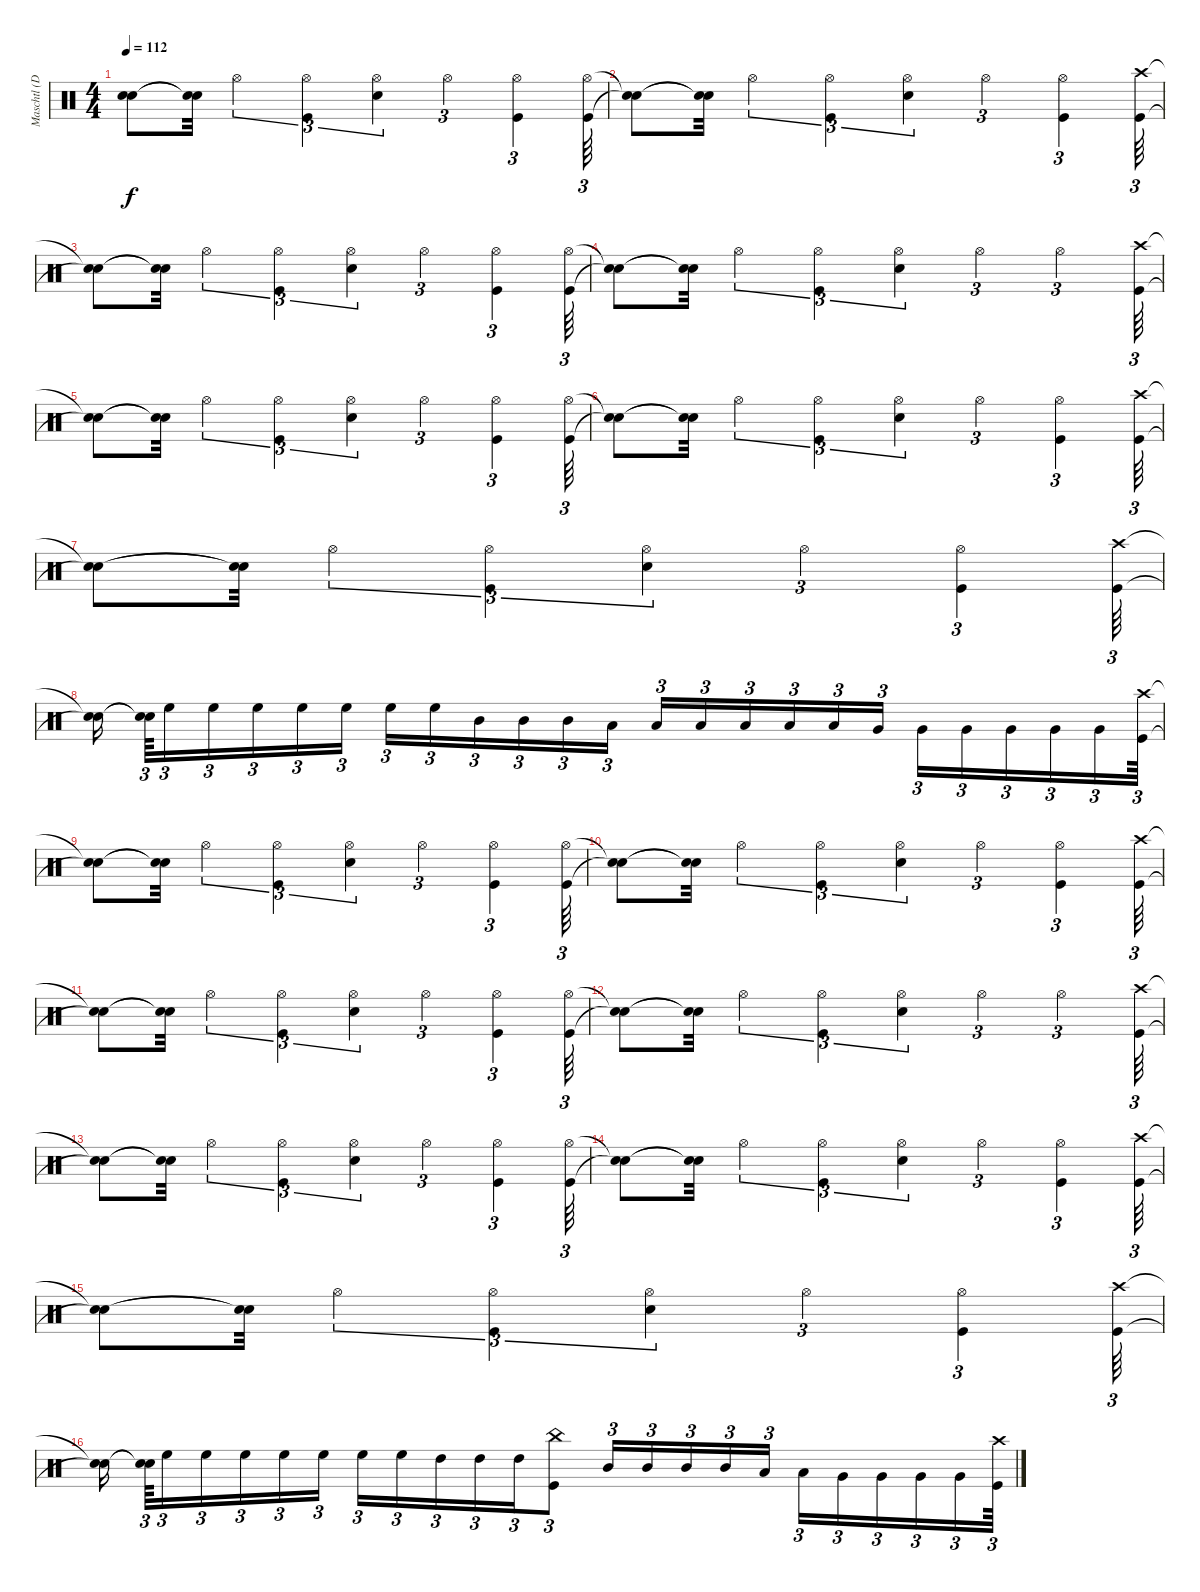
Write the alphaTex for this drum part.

\track ("Maschtl (Drums)" "Maschtl (D") {instrument percussion}
\staff {score}
\articulation defaults
\ts (4 4)
\tempo 112
\clef neutral
\ks c
("Snare (hit)"{t} "Snare (hit)"{t}).8{dy f} ("Snare (hit)"{t} "Snare (hit)"{t}).32 "Hi-Hat (open)".4{tu (3 2)} ("Hi-Hat (open)" "Kick (hit)").4{tu (3 2)} ("Hi-Hat (open)" "Electric Snare (hit)").4{tu (3 2)} "Hi-Hat (open)".4{tu (3 2)} ("Hi-Hat (open)" "Kick (hit)").4{tu (3 2)} ("Hi-Hat (open)" "Kick (hit)").64{tu (3 2)} |
("Snare (hit)"{t} "Snare (hit)"{t}).8 ("Snare (hit)"{t} "Snare (hit)"{t}).32 "Hi-Hat (open)".4{tu (3 2)} ("Hi-Hat (open)" "Kick (hit)").4{tu (3 2)} ("Hi-Hat (open)" "Electric Snare (hit)").4{tu (3 2)} "Hi-Hat (open)".4{tu (3 2)} ("Hi-Hat (open)" "Kick (hit)").4{tu (3 2)} ("Crash high (hit)" "Kick (hit)").64{tu (3 2)} |
("Snare (hit)"{t} "Snare (hit)"{t}).8 ("Snare (hit)"{t} "Snare (hit)"{t}).32 "Hi-Hat (open)".4{tu (3 2)} ("Hi-Hat (open)" "Kick (hit)").4{tu (3 2)} ("Hi-Hat (open)" "Electric Snare (hit)").4{tu (3 2)} "Hi-Hat (open)".4{tu (3 2)} ("Hi-Hat (open)" "Kick (hit)").4{tu (3 2)} ("Hi-Hat (open)" "Kick (hit)").64{tu (3 2)} |
("Snare (hit)"{t} "Snare (hit)"{t}).8 ("Snare (hit)"{t} "Snare (hit)"{t}).32 "Hi-Hat (open)".4{tu (3 2)} ("Hi-Hat (open)" "Kick (hit)").4{tu (3 2)} ("Hi-Hat (open)" "Electric Snare (hit)").4{tu (3 2)} "Hi-Hat (open)".4{tu (3 2)} "Hi-Hat (open)".4{tu (3 2)} ("Crash high (hit)" "Kick (hit)").64{tu (3 2)} |
("Snare (hit)"{t} "Snare (hit)"{t}).8 ("Snare (hit)"{t} "Snare (hit)"{t}).32 "Hi-Hat (open)".4{tu (3 2)} ("Hi-Hat (open)" "Kick (hit)").4{tu (3 2)} ("Hi-Hat (open)" "Electric Snare (hit)").4{tu (3 2)} "Hi-Hat (open)".4{tu (3 2)} ("Hi-Hat (open)" "Kick (hit)").4{tu (3 2)} ("Hi-Hat (open)" "Kick (hit)").64{tu (3 2)} |
("Snare (hit)"{t} "Snare (hit)"{t}).8 ("Snare (hit)"{t} "Snare (hit)"{t}).32 "Hi-Hat (open)".4{tu (3 2)} ("Hi-Hat (open)" "Kick (hit)").4{tu (3 2)} ("Hi-Hat (open)" "Electric Snare (hit)").4{tu (3 2)} "Hi-Hat (open)".4{tu (3 2)} ("Hi-Hat (open)" "Kick (hit)").4{tu (3 2)} ("Crash high (hit)" "Kick (hit)").64{tu (3 2)} |
("Snare (hit)"{t} "Snare (hit)"{t}).8 ("Snare (hit)"{t} "Snare (hit)"{t}).32 "Hi-Hat (open)".4{tu (3 2)} ("Hi-Hat (open)" "Kick (hit)").4{tu (3 2)} ("Hi-Hat (open)" "Electric Snare (hit)").4{tu (3 2)} "Hi-Hat (open)".4{tu (3 2)} ("Hi-Hat (open)" "Kick (hit)").4{tu (3 2)} ("Crash high (hit)" "Kick (hit)").64{tu (3 2)} |
("Snare (hit)"{t} "Snare (hit)"{t}).16 ("Snare (hit)"{t} "Snare (hit)"{t}).64{tu (3 2)} "High Floor Tom (hit)".16{tu (3 2)} "High Floor Tom (hit)".16{tu (3 2)} "High Floor Tom (hit)".16{tu (3 2)} "High Floor Tom (hit)".16{tu (3 2)} "High Floor Tom (hit)".16{tu (3 2)} "High Floor Tom (hit)".16{tu (3 2)} "High Floor Tom (hit)".16{tu (3 2)} "Mid Tom (hit)".16{tu (3 2)} "Mid Tom (hit)".16{tu (3 2)} "Mid Tom (hit)".16{tu (3 2)} "Low Tom (hit)".16{tu (3 2)} "Low Tom (hit)".16{tu (3 2)} "Low Tom (hit)".16{tu (3 2)} "Low Tom (hit)".16{tu (3 2)} "Low Tom (hit)".16{tu (3 2)} "Low Tom (hit)".16{tu (3 2)} "Very Low Tom (hit)".16{tu (3 2)} "Very Low Tom (hit)".16{tu (3 2)} "Very Low Tom (hit)".16{tu (3 2)} "Very Low Tom (hit)".16{tu (3 2)} "Very Low Tom (hit)".16{tu (3 2)} "Very Low Tom (hit)".16{tu (3 2)} ("Crash high (hit)" "Kick (hit)").64{tu (3 2)} |
("Snare (hit)"{t} "Snare (hit)"{t}).8 ("Snare (hit)"{t} "Snare (hit)"{t}).32 "Hi-Hat (open)".4{tu (3 2)} ("Hi-Hat (open)" "Kick (hit)").4{tu (3 2)} ("Hi-Hat (open)" "Electric Snare (hit)").4{tu (3 2)} "Hi-Hat (open)".4{tu (3 2)} ("Hi-Hat (open)" "Kick (hit)").4{tu (3 2)} ("Hi-Hat (open)" "Kick (hit)").64{tu (3 2)} |
("Snare (hit)"{t} "Snare (hit)"{t}).8 ("Snare (hit)"{t} "Snare (hit)"{t}).32 "Hi-Hat (open)".4{tu (3 2)} ("Hi-Hat (open)" "Kick (hit)").4{tu (3 2)} ("Hi-Hat (open)" "Electric Snare (hit)").4{tu (3 2)} "Hi-Hat (open)".4{tu (3 2)} ("Hi-Hat (open)" "Kick (hit)").4{tu (3 2)} ("Crash high (hit)" "Kick (hit)").64{tu (3 2)} |
("Snare (hit)"{t} "Snare (hit)"{t}).8 ("Snare (hit)"{t} "Snare (hit)"{t}).32 "Hi-Hat (open)".4{tu (3 2)} ("Hi-Hat (open)" "Kick (hit)").4{tu (3 2)} ("Hi-Hat (open)" "Electric Snare (hit)").4{tu (3 2)} "Hi-Hat (open)".4{tu (3 2)} ("Hi-Hat (open)" "Kick (hit)").4{tu (3 2)} ("Hi-Hat (open)" "Kick (hit)").64{tu (3 2)} |
("Snare (hit)"{t} "Snare (hit)"{t}).8 ("Snare (hit)"{t} "Snare (hit)"{t}).32 "Hi-Hat (open)".4{tu (3 2)} ("Hi-Hat (open)" "Kick (hit)").4{tu (3 2)} ("Hi-Hat (open)" "Electric Snare (hit)").4{tu (3 2)} "Hi-Hat (open)".4{tu (3 2)} "Hi-Hat (open)".4{tu (3 2)} ("Crash high (hit)" "Kick (hit)").64{tu (3 2)} |
("Snare (hit)"{t} "Snare (hit)"{t}).8 ("Snare (hit)"{t} "Snare (hit)"{t}).32 "Hi-Hat (open)".4{tu (3 2)} ("Hi-Hat (open)" "Kick (hit)").4{tu (3 2)} ("Hi-Hat (open)" "Electric Snare (hit)").4{tu (3 2)} "Hi-Hat (open)".4{tu (3 2)} ("Hi-Hat (open)" "Kick (hit)").4{tu (3 2)} ("Hi-Hat (open)" "Kick (hit)").64{tu (3 2)} |
("Snare (hit)"{t} "Snare (hit)"{t}).8 ("Snare (hit)"{t} "Snare (hit)"{t}).32 "Hi-Hat (open)".4{tu (3 2)} ("Hi-Hat (open)" "Kick (hit)").4{tu (3 2)} ("Hi-Hat (open)" "Electric Snare (hit)").4{tu (3 2)} "Hi-Hat (open)".4{tu (3 2)} ("Hi-Hat (open)" "Kick (hit)").4{tu (3 2)} ("Crash high (hit)" "Kick (hit)").64{tu (3 2)} |
("Snare (hit)"{t} "Snare (hit)"{t}).8 ("Snare (hit)"{t} "Snare (hit)"{t}).32 "Hi-Hat (open)".4{tu (3 2)} ("Hi-Hat (open)" "Kick (hit)").4{tu (3 2)} ("Hi-Hat (open)" "Electric Snare (hit)").4{tu (3 2)} "Hi-Hat (open)".4{tu (3 2)} ("Hi-Hat (open)" "Kick (hit)").4{tu (3 2)} ("Crash high (hit)" "Kick (hit)").64{tu (3 2)} |
("Snare (hit)"{t} "Snare (hit)"{t}).16 ("Snare (hit)"{t} "Snare (hit)"{t}).64{tu (3 2)} "High Floor Tom (hit)".16{tu (3 2)} "High Floor Tom (hit)".16{tu (3 2)} "High Floor Tom (hit)".16{tu (3 2)} "High Floor Tom (hit)".16{tu (3 2)} "High Floor Tom (hit)".16{tu (3 2)} "High Floor Tom (hit)".16{tu (3 2)} "High Floor Tom (hit)".16{tu (3 2)} "High Tom (hit)".16{tu (3 2)} "High Tom (hit)".16{tu (3 2)} "High Tom (hit)".16{tu (3 2)} ("China (hit)" "Kick (hit)").8{tu (3 2)} "Mid Tom (hit)".16{tu (3 2)} "Mid Tom (hit)".16{tu (3 2)} "Mid Tom (hit)".16{tu (3 2)} "Mid Tom (hit)".16{tu (3 2)} "Low Tom (hit)".16{tu (3 2)} "Low Tom (hit)".16{tu (3 2)} "Very Low Tom (hit)".16{tu (3 2)} "Very Low Tom (hit)".16{tu (3 2)} "Very Low Tom (hit)".16{tu (3 2)} "Very Low Tom (hit)".16{tu (3 2)} ("Crash high (hit)" "Kick (hit)").64{tu (3 2)}
